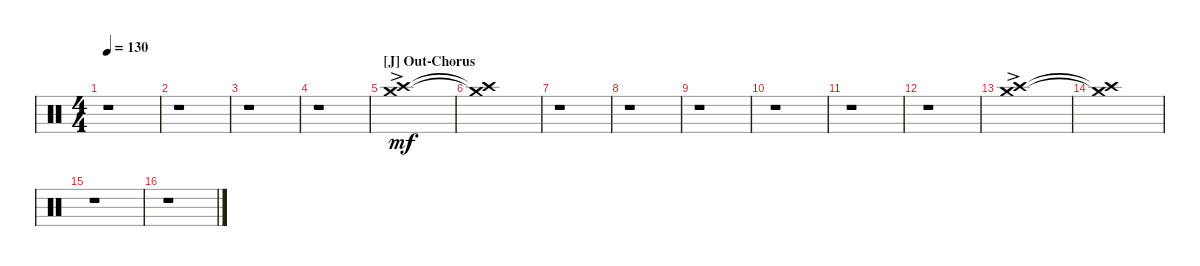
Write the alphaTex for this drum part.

\defaultSystemsLayout 4
\bracketExtendMode groupsimilarinstruments
\singleTrackTrackNamePolicy hidden
\multiTrackTrackNamePolicy hidden
\firstSystemTrackNameOrientation horizontal
\otherSystemsTrackNameOrientation horizontal
\track ("Orchestral Plates" "Drums") {instrument percussion}
\staff {score}
\articulation defaults
\ts (4 4)
\tempo 130
\clef neutral
\scale
1.02648
\ks c
r.1{dy mf} |
\scale
0.973518 r.1 |
\scale
1.02648 r.1 |
\scale
0.973518 r.1 |
\section ("J" "Out-Chorus")
\scale
1.02648 ("Crash high (hit)"{ac} "Crash medium (hit)"{ac}).1 |
\scale
0.973518 ("Crash high (hit)"{t} "Crash medium (hit)"{t}).1 |
\scale
1.02648 r.1 |
\scale
0.973518 r.1 |
\scale
1.02648 r.1 |
\scale
0.973518 r.1 |
\scale
1.02648 r.1 |
\scale
0.973518 r.1 |
\scale
1.02648 ("Crash high (hit)"{ac} "Crash medium (hit)"{ac}).1 |
\scale
0.973518 ("Crash high (hit)"{t} "Crash medium (hit)"{t}).1 |
\scale
1.02648 r.1 |
\scale
0.973518 r.1
